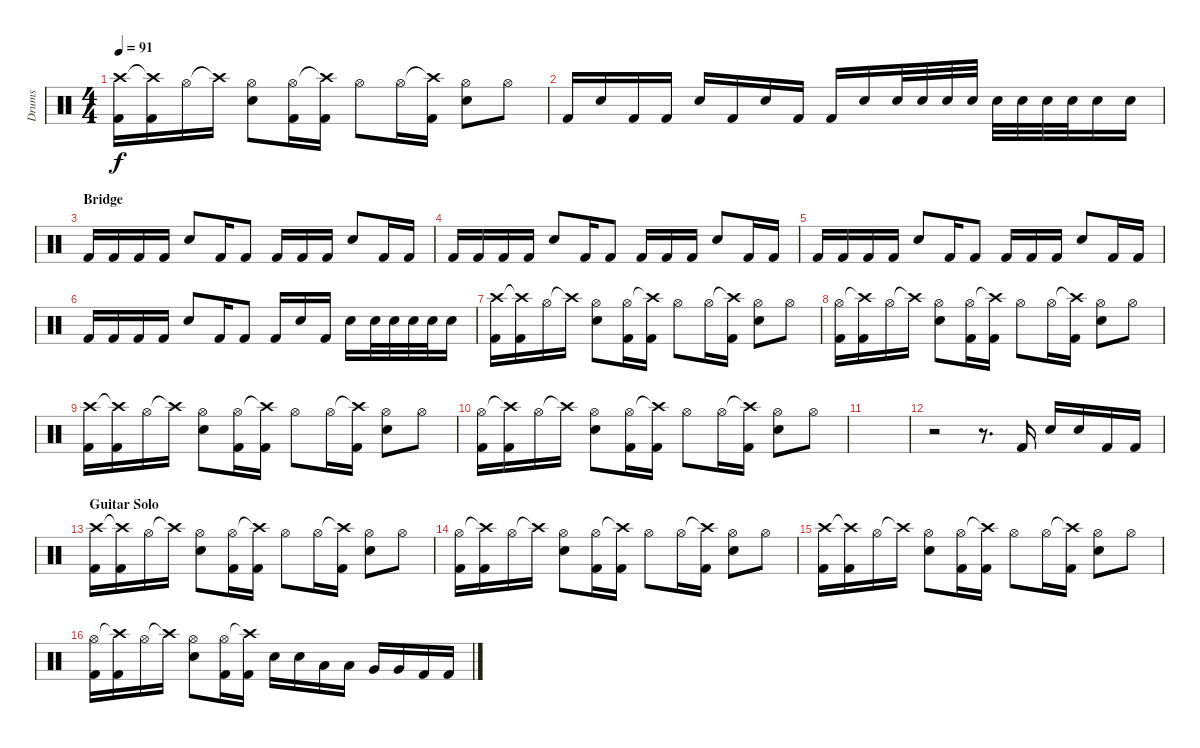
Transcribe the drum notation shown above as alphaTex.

\track ("Drums" "Drums") {instrument percussion}
\staff {score}
\articulation defaults
\ts (4 4)
\tempo 91
\clef neutral
\ks c
("Crash high (hit)" "Kick (hit) 2").16{dy f} ("Crash high (hit)"{t} "Kick (hit) 2").16 "Hi-Hat (open)".16 "Crash high (hit)"{t}.16 ("Hi-Hat (open)" "Electric Snare (hit)").8 ("Hi-Hat (open)" "Kick (hit) 2").16 ("Crash high (hit)"{t} "Kick (hit) 2").16 "Hi-Hat (open)".8 "Hi-Hat (open)".16 ("Crash high (hit)"{t} "Kick (hit) 2").16 ("Hi-Hat (open)" "Electric Snare (hit)").8 "Hi-Hat (open)".8 |
"Kick (hit) 2".16 "Electric Snare (hit)".16 "Kick (hit) 2".16 "Kick (hit) 2".16 "Electric Snare (hit)".16 "Kick (hit) 2".16 "Electric Snare (hit)".16 "Kick (hit) 2".16 "Kick (hit) 2".16 "Electric Snare (hit)".16 "Electric Snare (hit)".32 "Electric Snare (hit)".32 "Electric Snare (hit)".32 "Electric Snare (hit)".32 "Electric Snare (hit)".32 "Electric Snare (hit)".32 "Electric Snare (hit)".32 "Electric Snare (hit)".32 "Electric Snare (hit)".16 "Electric Snare (hit)".16 |
\section ("" "Bridge")
"Kick (hit) 2".16 "Kick (hit) 2".16 "Kick (hit) 2".16 "Kick (hit) 2".16 "Electric Snare (hit)".8 "Kick (hit) 2".16 "Kick (hit) 2".8 "Kick (hit) 2".16 "Kick (hit) 2".16 "Kick (hit) 2".16 "Electric Snare (hit)".8 "Kick (hit) 2".16 "Kick (hit) 2".16 |
"Kick (hit) 2".16 "Kick (hit) 2".16 "Kick (hit) 2".16 "Kick (hit) 2".16 "Electric Snare (hit)".8 "Kick (hit) 2".16 "Kick (hit) 2".8 "Kick (hit) 2".16 "Kick (hit) 2".16 "Kick (hit) 2".16 "Electric Snare (hit)".8 "Kick (hit) 2".16 "Kick (hit) 2".16 |
"Kick (hit) 2".16 "Kick (hit) 2".16 "Kick (hit) 2".16 "Kick (hit) 2".16 "Electric Snare (hit)".8 "Kick (hit) 2".16 "Kick (hit) 2".8 "Kick (hit) 2".16 "Kick (hit) 2".16 "Kick (hit) 2".16 "Electric Snare (hit)".8 "Kick (hit) 2".16 "Kick (hit) 2".16 |
"Kick (hit) 2".16 "Kick (hit) 2".16 "Kick (hit) 2".16 "Kick (hit) 2".16 "Electric Snare (hit)".8 "Kick (hit) 2".16 "Kick (hit) 2".8 "Kick (hit) 2".16 "Electric Snare (hit)".16 "Kick (hit) 2".16 "Electric Snare (hit)".16 "Electric Snare (hit)".32 "Electric Snare (hit)".32 "Electric Snare (hit)".32 "Electric Snare (hit)".32 "Electric Snare (hit)".16 |
("Crash high (hit)" "Kick (hit) 2").16 ("Crash high (hit)"{t} "Kick (hit) 2").16 "Hi-Hat (open)".16 "Crash high (hit)"{t}.16 ("Hi-Hat (open)" "Electric Snare (hit)").8 ("Hi-Hat (open)" "Kick (hit) 2").16 ("Crash high (hit)"{t} "Kick (hit) 2").16 "Hi-Hat (open)".8 "Hi-Hat (open)".16 ("Crash high (hit)"{t} "Kick (hit) 2").16 ("Hi-Hat (open)" "Electric Snare (hit)").8 "Hi-Hat (open)".8 |
("Hi-Hat (open)" "Kick (hit) 2").16 ("Crash high (hit)"{t} "Kick (hit) 2").16 "Hi-Hat (open)".16 "Crash high (hit)"{t}.16 ("Hi-Hat (open)" "Electric Snare (hit)").8 ("Hi-Hat (open)" "Kick (hit) 2").16 ("Crash high (hit)"{t} "Kick (hit) 2").16 "Hi-Hat (open)".8 "Hi-Hat (open)".16 ("Crash high (hit)"{t} "Kick (hit) 2").16 ("Hi-Hat (open)" "Electric Snare (hit)").8 "Hi-Hat (open)".8 |
("Crash high (hit)" "Kick (hit) 2").16 ("Crash high (hit)"{t} "Kick (hit) 2").16 "Hi-Hat (open)".16 "Crash high (hit)"{t}.16 ("Hi-Hat (open)" "Electric Snare (hit)").8 ("Hi-Hat (open)" "Kick (hit) 2").16 ("Crash high (hit)"{t} "Kick (hit) 2").16 "Hi-Hat (open)".8 "Hi-Hat (open)".16 ("Crash high (hit)"{t} "Kick (hit) 2").16 ("Hi-Hat (open)" "Electric Snare (hit)").8 "Hi-Hat (open)".8 |
("Hi-Hat (open)" "Kick (hit) 2").16 ("Crash high (hit)"{t} "Kick (hit) 2").16 "Hi-Hat (open)".16 "Crash high (hit)"{t}.16 ("Hi-Hat (open)" "Electric Snare (hit)").8 ("Hi-Hat (open)" "Kick (hit) 2").16 ("Crash high (hit)"{t} "Kick (hit) 2").16 "Hi-Hat (open)".8 "Hi-Hat (open)".16 ("Crash high (hit)"{t} "Kick (hit) 2").16 ("Hi-Hat (open)" "Electric Snare (hit)").8 "Hi-Hat (open)".8 |
|
r.2 r.8{d} "Kick (hit) 2".16 "Electric Snare (hit)".16 "Electric Snare (hit)".16 "Kick (hit) 2".16 "Kick (hit) 2".16 |
\section ("" "Guitar Solo")
("Crash high (hit)" "Kick (hit) 2").16 ("Crash high (hit)"{t} "Kick (hit) 2").16 "Hi-Hat (open)".16 "Crash high (hit)"{t}.16 ("Hi-Hat (open)" "Electric Snare (hit)").8 ("Hi-Hat (open)" "Kick (hit) 2").16 ("Crash high (hit)"{t} "Kick (hit) 2").16 "Hi-Hat (open)".8 "Hi-Hat (open)".16 ("Crash high (hit)"{t} "Kick (hit) 2").16 ("Hi-Hat (open)" "Electric Snare (hit)").8 "Hi-Hat (open)".8 |
("Hi-Hat (open)" "Kick (hit) 2").16 ("Crash high (hit)"{t} "Kick (hit) 2").16 "Hi-Hat (open)".16 "Crash high (hit)"{t}.16 ("Hi-Hat (open)" "Electric Snare (hit)").8 ("Hi-Hat (open)" "Kick (hit) 2").16 ("Crash high (hit)"{t} "Kick (hit) 2").16 "Hi-Hat (open)".8 "Hi-Hat (open)".16 ("Crash high (hit)"{t} "Kick (hit) 2").16 ("Hi-Hat (open)" "Electric Snare (hit)").8 "Hi-Hat (open)".8 |
("Crash high (hit)" "Kick (hit) 2").16 ("Crash high (hit)"{t} "Kick (hit) 2").16 "Hi-Hat (open)".16 "Crash high (hit)"{t}.16 ("Hi-Hat (open)" "Electric Snare (hit)").8 ("Hi-Hat (open)" "Kick (hit) 2").16 ("Crash high (hit)"{t} "Kick (hit) 2").16 "Hi-Hat (open)".8 "Hi-Hat (open)".16 ("Crash high (hit)"{t} "Kick (hit) 2").16 ("Hi-Hat (open)" "Electric Snare (hit)").8 "Hi-Hat (open)".8 |
("Hi-Hat (open)" "Kick (hit) 2").16 ("Crash high (hit)"{t} "Kick (hit) 2").16 "Hi-Hat (open)".16 "Crash high (hit)"{t}.16 ("Hi-Hat (open)" "Electric Snare (hit)").8 ("Hi-Hat (open)" "Kick (hit) 2").16 ("Crash high (hit)"{t} "Kick (hit) 2").16 "Electric Snare (hit)".16 "Electric Snare (hit)".16 "Low Tom (hit)".16 "Low Tom (hit)".16 "Very Low Tom (hit)".16 "Very Low Tom (hit)".16 "Kick (hit) 2".16 "Kick (hit) 2".16
